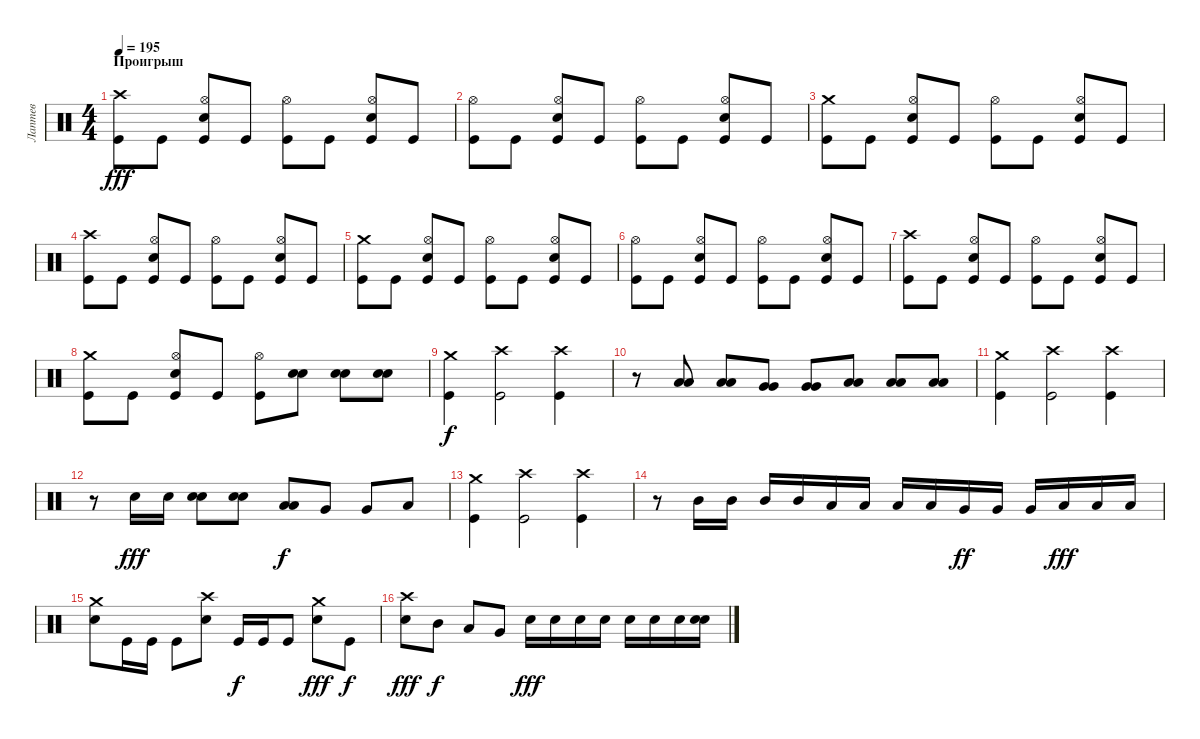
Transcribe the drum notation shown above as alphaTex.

\track ("Лаптев" "Лаптев") {instrument percussion}
\staff {score}
\articulation defaults
\ts (4 4)
\section ("" "Проигрыш")
\tempo 195
\clef neutral
\ks c
("Crash high (hit)" "Kick (hit)").8{dy fff} "Kick (hit)".8 ("Hi-Hat (open)" "Electric Snare (hit)" "Kick (hit)").8 "Kick (hit)".8 ("Hi-Hat (open)" "Kick (hit)").8 "Kick (hit)".8 ("Hi-Hat (open)" "Electric Snare (hit)" "Kick (hit)").8 "Kick (hit)".8 |
("Hi-Hat (open)" "Kick (hit)").8 "Kick (hit)".8 ("Hi-Hat (open)" "Electric Snare (hit)" "Kick (hit)").8 "Kick (hit)".8 ("Hi-Hat (open)" "Kick (hit)").8 "Kick (hit)".8 ("Hi-Hat (open)" "Electric Snare (hit)" "Kick (hit)").8 "Kick (hit)".8 |
("Crash medium (hit)" "Kick (hit)").8 "Kick (hit)".8 ("Hi-Hat (open)" "Electric Snare (hit)" "Kick (hit)").8 "Kick (hit)".8 ("Hi-Hat (open)" "Kick (hit)").8 "Kick (hit)".8 ("Hi-Hat (open)" "Electric Snare (hit)" "Kick (hit)").8 "Kick (hit)".8 |
("Crash high (hit)" "Kick (hit)").8 "Kick (hit)".8 ("Hi-Hat (open)" "Electric Snare (hit)" "Kick (hit)").8 "Kick (hit)".8 ("Hi-Hat (open)" "Kick (hit)").8 "Kick (hit)".8 ("Hi-Hat (open)" "Electric Snare (hit)" "Kick (hit)").8 "Kick (hit)".8 |
("Crash medium (hit)" "Kick (hit)").8 "Kick (hit)".8 ("Hi-Hat (open)" "Electric Snare (hit)" "Kick (hit)").8 "Kick (hit)".8 ("Hi-Hat (open)" "Kick (hit)").8 "Kick (hit)".8 ("Hi-Hat (open)" "Electric Snare (hit)" "Kick (hit)").8 "Kick (hit)".8 |
("Hi-Hat (open)" "Kick (hit)").8 "Kick (hit)".8 ("Hi-Hat (open)" "Electric Snare (hit)" "Kick (hit)").8 "Kick (hit)".8 ("Hi-Hat (open)" "Kick (hit)").8 "Kick (hit)".8 ("Hi-Hat (open)" "Electric Snare (hit)" "Kick (hit)").8 "Kick (hit)".8 |
("Crash high (hit)" "Kick (hit)").8 "Kick (hit)".8 ("Hi-Hat (open)" "Electric Snare (hit)" "Kick (hit)").8 "Kick (hit)".8 ("Hi-Hat (open)" "Kick (hit)").8 "Kick (hit)".8 ("Hi-Hat (open)" "Electric Snare (hit)" "Kick (hit)").8 "Kick (hit)".8 |
("Crash medium (hit)" "Kick (hit)").8 "Kick (hit)".8 ("Hi-Hat (open)" "Electric Snare (hit)" "Kick (hit)").8 "Kick (hit)".8 ("Hi-Hat (open)" "Kick (hit)").8 ("Electric Snare (hit)" "Electric Snare (hit)").8 ("Electric Snare (hit)" "Electric Snare (hit)").8 ("Electric Snare (hit)" "Electric Snare (hit)").8 |
("Crash medium (hit)" "Kick (hit)").4{dy f} ("Crash high (hit)" "Kick (hit)").2 ("Crash high (hit)" "Kick (hit)").4 |
r.8 ("Low Tom (hit)" "Low Tom (hit)").8 ("Low Tom (hit)" "Low Tom (hit)").8 ("Very Low Tom (hit)" "Very Low Tom (hit)").8 ("Very Low Tom (hit)" "Very Low Tom (hit)").8 ("Low Floor Tom (hit)" "Low Floor Tom (hit)").8 ("Low Floor Tom (hit)" "Low Floor Tom (hit)").8 ("Low Floor Tom (hit)" "Low Floor Tom (hit)").8 |
("Crash medium (hit)" "Kick (hit)").4 ("Crash high (hit)" "Kick (hit)").2 ("Crash high (hit)" "Kick (hit)").4 |
r.8 "Electric Snare (hit)".16{dy fff} "Electric Snare (hit)".16 ("Electric Snare (hit)" "Electric Snare (hit)").8 ("Electric Snare (hit)" "Electric Snare (hit)").8 ("Low Floor Tom (hit)" "Low Floor Tom (hit)").8{dy f} "Very Low Tom (hit)".8 "Very Low Tom (hit)".8 "Low Tom (hit)".8 |
("Crash medium (hit)" "Kick (hit)").4 ("Crash high (hit)" "Kick (hit)").2 ("Crash high (hit)" "Kick (hit)").4 |
r.8 "Mid Tom (hit)".16 "Mid Tom (hit)".16 "Mid Tom (hit)".16 "Mid Tom (hit)".16 "Low Tom (hit)".16 "Low Tom (hit)".16 "Low Tom (hit)".16 "Low Tom (hit)".16 "Very Low Tom (hit)".16{dy ff} "Very Low Tom (hit)".16 "Very Low Tom (hit)".16 "Low Floor Tom (hit)".16{dy fff} "Low Floor Tom (hit)".16 "Low Floor Tom (hit)".16 |
("Crash medium (hit)" "Electric Snare (hit)").8 "Kick (hit)".16 "Kick (hit)".16 "Kick (hit)".8 ("Crash high (hit)" "Electric Snare (hit)").8 "Kick (hit)".16{dy f} "Kick (hit)".16 "Kick (hit)".8 ("Crash medium (hit)" "Electric Snare (hit)").8{dy fff} "Kick (hit)".8{dy f} |
("Crash high (hit)" "Electric Snare (hit)").8{dy fff} "Mid Tom (hit)".8{dy f} "Low Tom (hit)".8 "Very Low Tom (hit)".8 "Electric Snare (hit)".16{dy fff} "Electric Snare (hit)".16 "Electric Snare (hit)".16 "Electric Snare (hit)".16 "Electric Snare (hit)".16 "Electric Snare (hit)".16 "Electric Snare (hit)".16 ("Electric Snare (hit)" "Electric Snare (hit)").16
